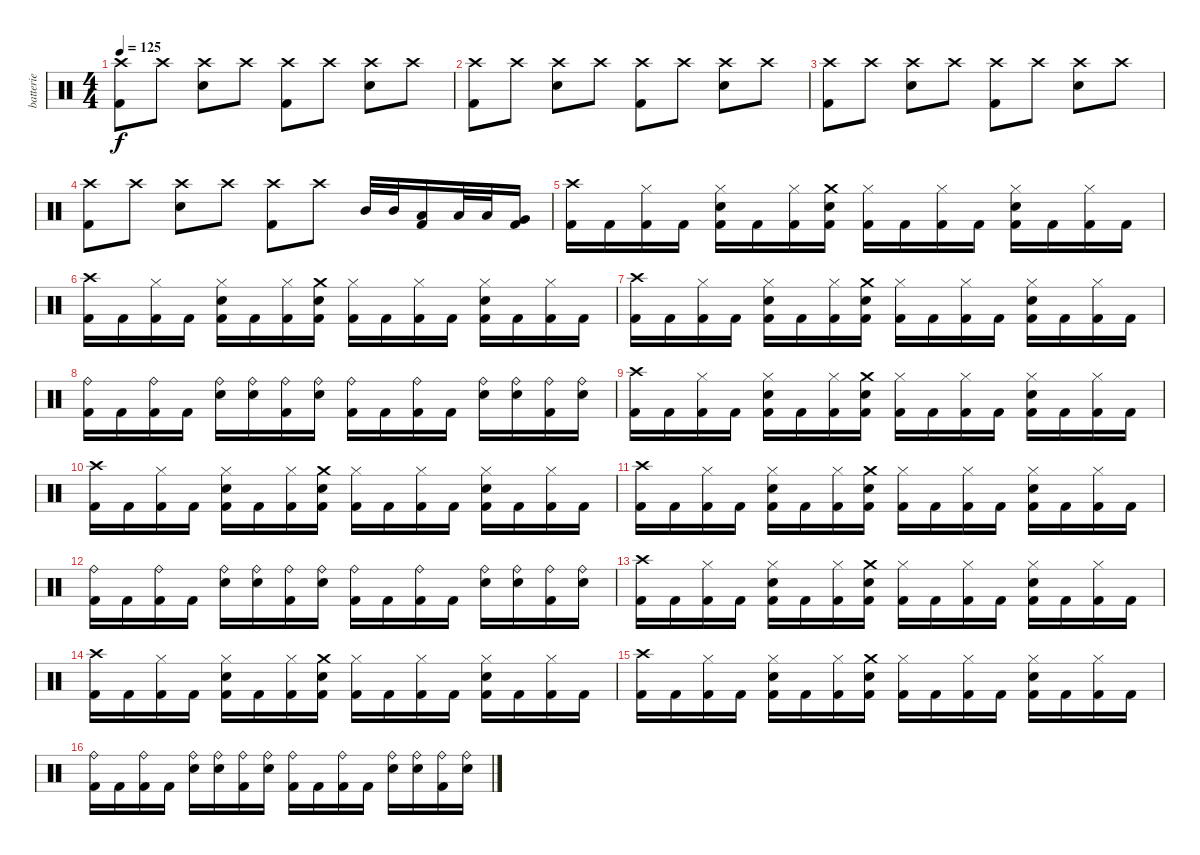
\track ("batterie" "batterie") {instrument percussion}
\staff {score}
\articulation defaults
\ts (4 4)
\tempo 125
\clef neutral
\ks c
("Kick (hit) 2" "Crash high (hit)").8{dy f} "Crash high (hit)".8 ("Electric Snare (hit)" "Crash high (hit)").8 "Crash high (hit)".8 ("Kick (hit) 2" "Crash high (hit)").8 "Crash high (hit)".8 ("Electric Snare (hit)" "Crash high (hit)").8 "Crash high (hit)".8 |
("Kick (hit) 2" "Crash high (hit)").8 "Crash high (hit)".8 ("Electric Snare (hit)" "Crash high (hit)").8 "Crash high (hit)".8 ("Kick (hit) 2" "Crash high (hit)").8 "Crash high (hit)".8 ("Electric Snare (hit)" "Crash high (hit)").8 "Crash high (hit)".8 |
("Kick (hit) 2" "Crash high (hit)").8 "Crash high (hit)".8 ("Electric Snare (hit)" "Crash high (hit)").8 "Crash high (hit)".8 ("Kick (hit) 2" "Crash high (hit)").8 "Crash high (hit)".8 ("Electric Snare (hit)" "Crash high (hit)").8 "Crash high (hit)".8 |
("Kick (hit) 2" "Crash high (hit)").8 "Crash high (hit)".8 ("Electric Snare (hit)" "Crash high (hit)").8 "Crash high (hit)".8 ("Kick (hit) 2" "Crash high (hit)").8 "Crash high (hit)".8 "Mid Tom (hit)".32 "Mid Tom (hit)".32 ("Low Tom (hit)" "Kick (hit) 2").16 "Low Tom (hit)".32 "Low Tom (hit)".32 ("Very Low Tom (hit)" "Kick (hit) 2").16 |
("Crash high (hit)" "Kick (hit) 2").16 "Kick (hit) 2".16 ("Kick (hit) 2" "Hi-Hat (closed)").16 "Kick (hit) 2".16 ("Electric Snare (hit)" "Kick (hit) 2" "Hi-Hat (closed)").16 "Kick (hit) 2".16 ("Kick (hit) 2" "Hi-Hat (closed)").16 ("Crash medium (hit)" "Electric Snare (hit)" "Kick (hit) 2").16 ("Kick (hit) 2" "Hi-Hat (closed)").16 "Kick (hit) 2".16 ("Kick (hit) 2" "Hi-Hat (closed)").16 "Kick (hit) 2".16 ("Electric Snare (hit)" "Kick (hit) 2" "Hi-Hat (closed)").16 "Kick (hit) 2".16 ("Kick (hit) 2" "Hi-Hat (closed)").16 "Kick (hit) 2".16 |
("Crash high (hit)" "Kick (hit) 2").16 "Kick (hit) 2".16 ("Kick (hit) 2" "Hi-Hat (closed)").16 "Kick (hit) 2".16 ("Electric Snare (hit)" "Kick (hit) 2" "Hi-Hat (closed)").16 "Kick (hit) 2".16 ("Kick (hit) 2" "Hi-Hat (closed)").16 ("Crash medium (hit)" "Electric Snare (hit)" "Kick (hit) 2").16 ("Kick (hit) 2" "Hi-Hat (closed)").16 "Kick (hit) 2".16 ("Kick (hit) 2" "Hi-Hat (closed)").16 "Kick (hit) 2".16 ("Electric Snare (hit)" "Kick (hit) 2" "Hi-Hat (closed)").16 "Kick (hit) 2".16 ("Kick (hit) 2" "Hi-Hat (closed)").16 "Kick (hit) 2".16 |
("Crash high (hit)" "Kick (hit) 2").16 "Kick (hit) 2".16 ("Kick (hit) 2" "Hi-Hat (closed)").16 "Kick (hit) 2".16 ("Electric Snare (hit)" "Kick (hit) 2" "Hi-Hat (closed)").16 "Kick (hit) 2".16 ("Kick (hit) 2" "Hi-Hat (closed)").16 ("Crash medium (hit)" "Electric Snare (hit)" "Kick (hit) 2").16 ("Kick (hit) 2" "Hi-Hat (closed)").16 "Kick (hit) 2".16 ("Kick (hit) 2" "Hi-Hat (closed)").16 "Kick (hit) 2".16 ("Electric Snare (hit)" "Kick (hit) 2" "Hi-Hat (closed)").16 "Kick (hit) 2".16 ("Kick (hit) 2" "Hi-Hat (closed)").16 "Kick (hit) 2".16 |
("Kick (hit) 2" "Ride (bell)").16 "Kick (hit) 2".16 ("Kick (hit) 2" "Ride (bell)").16 "Kick (hit) 2".16 ("Electric Snare (hit)" "Ride (bell)").16 ("Electric Snare (hit)" "Ride (bell)").16 ("Kick (hit) 2" "Ride (bell)").16 ("Electric Snare (hit)" "Ride (bell)").16 ("Kick (hit) 2" "Ride (bell)").16 "Kick (hit) 2".16 ("Kick (hit) 2" "Ride (bell)").16 "Kick (hit) 2".16 ("Electric Snare (hit)" "Ride (bell)").16 ("Electric Snare (hit)" "Ride (bell)").16 ("Kick (hit) 2" "Ride (bell)").16 ("Electric Snare (hit)" "Ride (bell)").16 |
("Crash high (hit)" "Kick (hit) 2").16 "Kick (hit) 2".16 ("Kick (hit) 2" "Hi-Hat (closed)").16 "Kick (hit) 2".16 ("Electric Snare (hit)" "Kick (hit) 2" "Hi-Hat (closed)").16 "Kick (hit) 2".16 ("Kick (hit) 2" "Hi-Hat (closed)").16 ("Crash medium (hit)" "Electric Snare (hit)" "Kick (hit) 2").16 ("Kick (hit) 2" "Hi-Hat (closed)").16 "Kick (hit) 2".16 ("Kick (hit) 2" "Hi-Hat (closed)").16 "Kick (hit) 2".16 ("Electric Snare (hit)" "Kick (hit) 2" "Hi-Hat (closed)").16 "Kick (hit) 2".16 ("Kick (hit) 2" "Hi-Hat (closed)").16 "Kick (hit) 2".16 |
("Crash high (hit)" "Kick (hit) 2").16 "Kick (hit) 2".16 ("Kick (hit) 2" "Hi-Hat (closed)").16 "Kick (hit) 2".16 ("Electric Snare (hit)" "Kick (hit) 2" "Hi-Hat (closed)").16 "Kick (hit) 2".16 ("Kick (hit) 2" "Hi-Hat (closed)").16 ("Crash medium (hit)" "Electric Snare (hit)" "Kick (hit) 2").16 ("Kick (hit) 2" "Hi-Hat (closed)").16 "Kick (hit) 2".16 ("Kick (hit) 2" "Hi-Hat (closed)").16 "Kick (hit) 2".16 ("Electric Snare (hit)" "Kick (hit) 2" "Hi-Hat (closed)").16 "Kick (hit) 2".16 ("Kick (hit) 2" "Hi-Hat (closed)").16 "Kick (hit) 2".16 |
("Crash high (hit)" "Kick (hit) 2").16 "Kick (hit) 2".16 ("Kick (hit) 2" "Hi-Hat (closed)").16 "Kick (hit) 2".16 ("Electric Snare (hit)" "Kick (hit) 2" "Hi-Hat (closed)").16 "Kick (hit) 2".16 ("Kick (hit) 2" "Hi-Hat (closed)").16 ("Crash medium (hit)" "Electric Snare (hit)" "Kick (hit) 2").16 ("Kick (hit) 2" "Hi-Hat (closed)").16 "Kick (hit) 2".16 ("Kick (hit) 2" "Hi-Hat (closed)").16 "Kick (hit) 2".16 ("Electric Snare (hit)" "Kick (hit) 2" "Hi-Hat (closed)").16 "Kick (hit) 2".16 ("Kick (hit) 2" "Hi-Hat (closed)").16 "Kick (hit) 2".16 |
("Kick (hit) 2" "Ride (bell)").16 "Kick (hit) 2".16 ("Kick (hit) 2" "Ride (bell)").16 "Kick (hit) 2".16 ("Electric Snare (hit)" "Ride (bell)").16 ("Electric Snare (hit)" "Ride (bell)").16 ("Kick (hit) 2" "Ride (bell)").16 ("Electric Snare (hit)" "Ride (bell)").16 ("Kick (hit) 2" "Ride (bell)").16 "Kick (hit) 2".16 ("Kick (hit) 2" "Ride (bell)").16 "Kick (hit) 2".16 ("Electric Snare (hit)" "Ride (bell)").16 ("Electric Snare (hit)" "Ride (bell)").16 ("Kick (hit) 2" "Ride (bell)").16 ("Electric Snare (hit)" "Ride (bell)").16 |
("Crash high (hit)" "Kick (hit) 2").16 "Kick (hit) 2".16 ("Kick (hit) 2" "Hi-Hat (closed)").16 "Kick (hit) 2".16 ("Electric Snare (hit)" "Kick (hit) 2" "Hi-Hat (closed)").16 "Kick (hit) 2".16 ("Kick (hit) 2" "Hi-Hat (closed)").16 ("Crash medium (hit)" "Electric Snare (hit)" "Kick (hit) 2").16 ("Kick (hit) 2" "Hi-Hat (closed)").16 "Kick (hit) 2".16 ("Kick (hit) 2" "Hi-Hat (closed)").16 "Kick (hit) 2".16 ("Electric Snare (hit)" "Kick (hit) 2" "Hi-Hat (closed)").16 "Kick (hit) 2".16 ("Kick (hit) 2" "Hi-Hat (closed)").16 "Kick (hit) 2".16 |
("Crash high (hit)" "Kick (hit) 2").16 "Kick (hit) 2".16 ("Kick (hit) 2" "Hi-Hat (closed)").16 "Kick (hit) 2".16 ("Electric Snare (hit)" "Kick (hit) 2" "Hi-Hat (closed)").16 "Kick (hit) 2".16 ("Kick (hit) 2" "Hi-Hat (closed)").16 ("Crash medium (hit)" "Electric Snare (hit)" "Kick (hit) 2").16 ("Kick (hit) 2" "Hi-Hat (closed)").16 "Kick (hit) 2".16 ("Kick (hit) 2" "Hi-Hat (closed)").16 "Kick (hit) 2".16 ("Electric Snare (hit)" "Kick (hit) 2" "Hi-Hat (closed)").16 "Kick (hit) 2".16 ("Kick (hit) 2" "Hi-Hat (closed)").16 "Kick (hit) 2".16 |
("Crash high (hit)" "Kick (hit) 2").16 "Kick (hit) 2".16 ("Kick (hit) 2" "Hi-Hat (closed)").16 "Kick (hit) 2".16 ("Electric Snare (hit)" "Kick (hit) 2" "Hi-Hat (closed)").16 "Kick (hit) 2".16 ("Kick (hit) 2" "Hi-Hat (closed)").16 ("Crash medium (hit)" "Electric Snare (hit)" "Kick (hit) 2").16 ("Kick (hit) 2" "Hi-Hat (closed)").16 "Kick (hit) 2".16 ("Kick (hit) 2" "Hi-Hat (closed)").16 "Kick (hit) 2".16 ("Electric Snare (hit)" "Kick (hit) 2" "Hi-Hat (closed)").16 "Kick (hit) 2".16 ("Kick (hit) 2" "Hi-Hat (closed)").16 "Kick (hit) 2".16 |
("Kick (hit) 2" "Ride (bell)").16 "Kick (hit) 2".16 ("Kick (hit) 2" "Ride (bell)").16 "Kick (hit) 2".16 ("Electric Snare (hit)" "Ride (bell)").16 ("Electric Snare (hit)" "Ride (bell)").16 ("Kick (hit) 2" "Ride (bell)").16 ("Electric Snare (hit)" "Ride (bell)").16 ("Kick (hit) 2" "Ride (bell)").16 "Kick (hit) 2".16 ("Kick (hit) 2" "Ride (bell)").16 "Kick (hit) 2".16 ("Electric Snare (hit)" "Ride (bell)").16 ("Electric Snare (hit)" "Ride (bell)").16 ("Kick (hit) 2" "Ride (bell)").16 ("Electric Snare (hit)" "Ride (bell)").16
